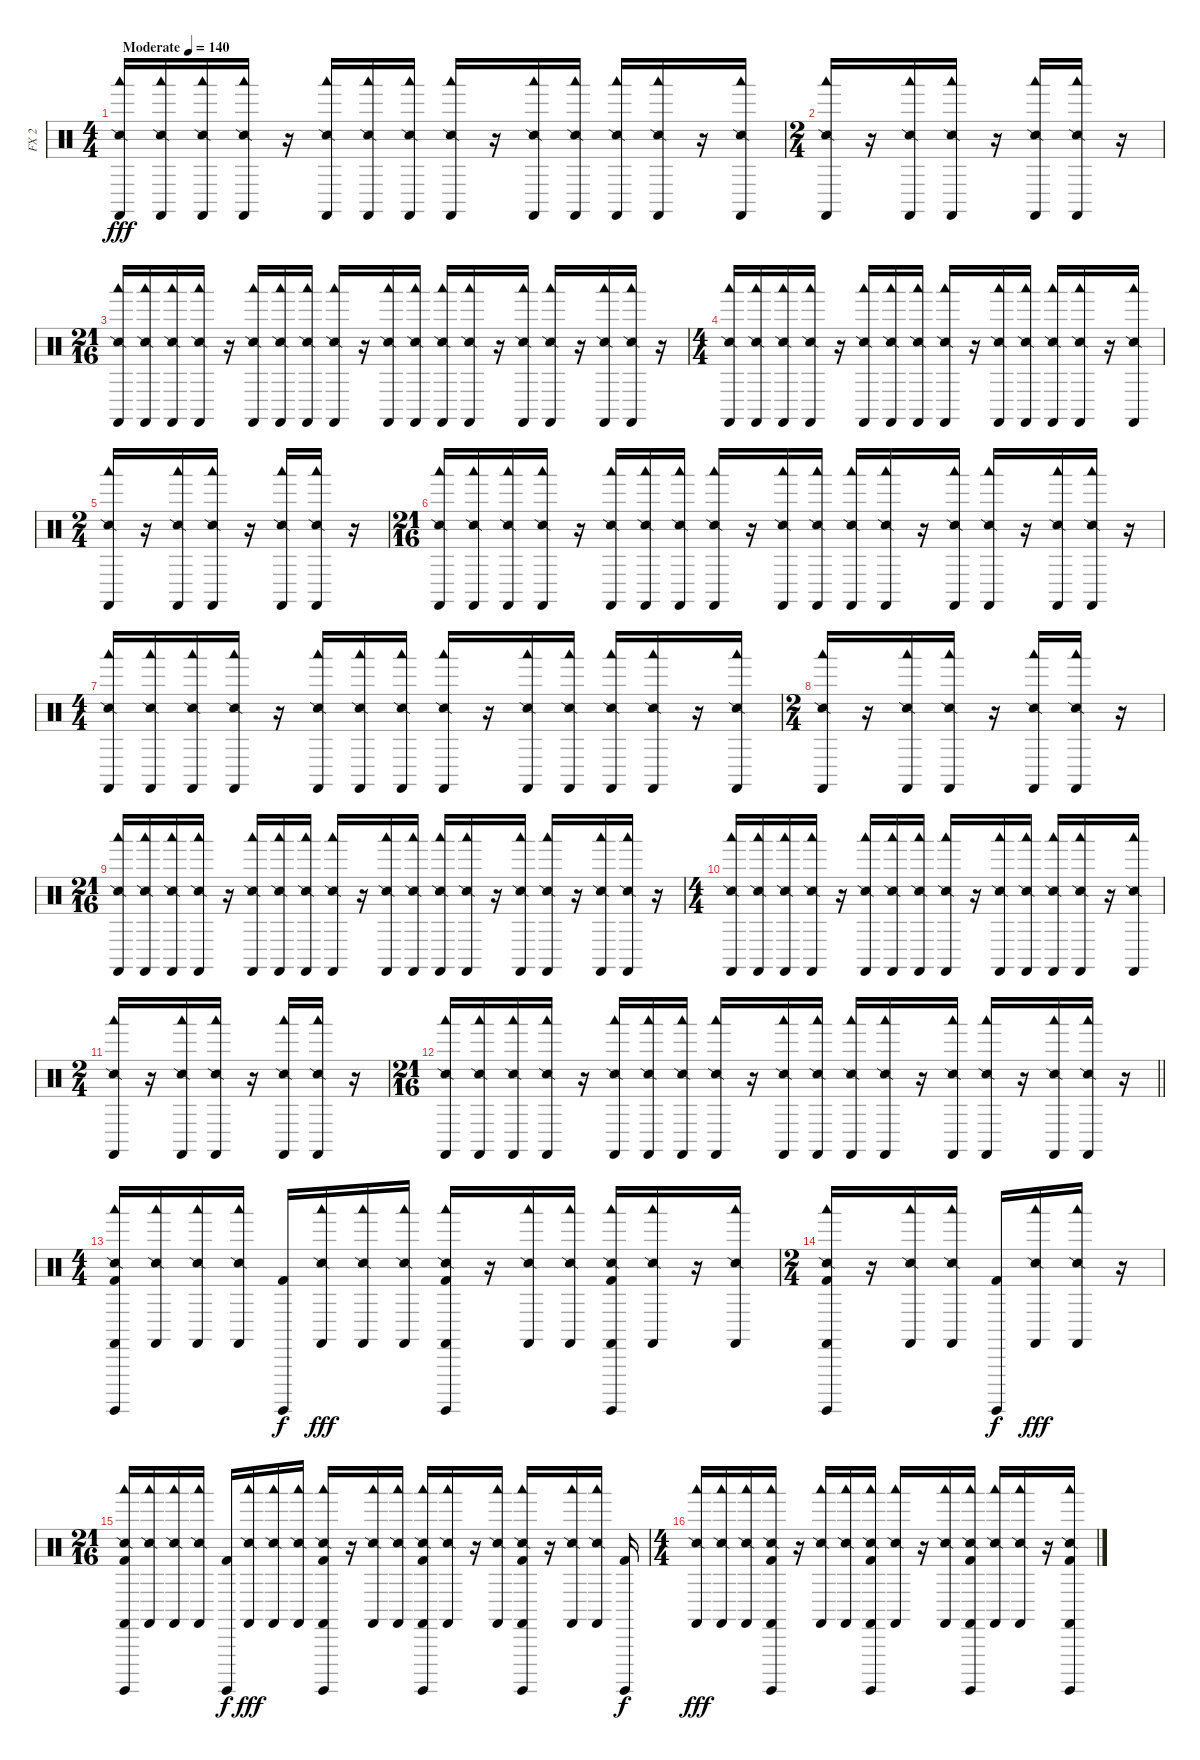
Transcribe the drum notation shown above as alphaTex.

\track ("FX 2" "FX 2") {instrument percussion}
\staff {score}
\articulation defaults
\ts (4 4)
\tempo (140 "Moderate")
\clef neutral
\ks c
("Snare (side stick) 2" "Woodblock low (hit)" "Castanets (hit)").16{dy fff} ("Snare (side stick) 2" "Woodblock low (hit)" "Castanets (hit)").16 ("Snare (side stick) 2" "Woodblock low (hit)" "Castanets (hit)").16 ("Snare (side stick) 2" "Woodblock low (hit)" "Castanets (hit)").16 r.16 ("Snare (side stick) 2" "Woodblock low (hit)" "Castanets (hit)").16 ("Snare (side stick) 2" "Woodblock low (hit)" "Castanets (hit)").16 ("Snare (side stick) 2" "Woodblock low (hit)" "Castanets (hit)").16 ("Snare (side stick) 2" "Woodblock low (hit)" "Castanets (hit)").16 r.16 ("Snare (side stick) 2" "Woodblock low (hit)" "Castanets (hit)").16 ("Snare (side stick) 2" "Woodblock low (hit)" "Castanets (hit)").16 ("Snare (side stick) 2" "Woodblock low (hit)" "Castanets (hit)").16 ("Snare (side stick) 2" "Woodblock low (hit)" "Castanets (hit)").16 r.16 ("Snare (side stick) 2" "Woodblock low (hit)" "Castanets (hit)").16 |
\ts (2 4)
("Snare (side stick) 2" "Woodblock low (hit)" "Castanets (hit)").16 r.16 ("Snare (side stick) 2" "Woodblock low (hit)" "Castanets (hit)").16 ("Snare (side stick) 2" "Woodblock low (hit)" "Castanets (hit)").16 r.16 ("Snare (side stick) 2" "Woodblock low (hit)" "Castanets (hit)").16 ("Snare (side stick) 2" "Woodblock low (hit)" "Castanets (hit)").16 r.16 |
\ts (21 16)
("Snare (side stick) 2" "Woodblock low (hit)" "Castanets (hit)").16 ("Snare (side stick) 2" "Woodblock low (hit)" "Castanets (hit)").16 ("Snare (side stick) 2" "Woodblock low (hit)" "Castanets (hit)").16 ("Snare (side stick) 2" "Woodblock low (hit)" "Castanets (hit)").16 r.16 ("Snare (side stick) 2" "Woodblock low (hit)" "Castanets (hit)").16 ("Snare (side stick) 2" "Woodblock low (hit)" "Castanets (hit)").16 ("Snare (side stick) 2" "Woodblock low (hit)" "Castanets (hit)").16 ("Snare (side stick) 2" "Woodblock low (hit)" "Castanets (hit)").16 r.16 ("Snare (side stick) 2" "Woodblock low (hit)" "Castanets (hit)").16 ("Snare (side stick) 2" "Woodblock low (hit)" "Castanets (hit)").16 ("Snare (side stick) 2" "Woodblock low (hit)" "Castanets (hit)").16 ("Snare (side stick) 2" "Woodblock low (hit)" "Castanets (hit)").16 r.16 ("Snare (side stick) 2" "Woodblock low (hit)" "Castanets (hit)").16 ("Snare (side stick) 2" "Woodblock low (hit)" "Castanets (hit)").16 r.16 ("Snare (side stick) 2" "Woodblock low (hit)" "Castanets (hit)").16 ("Snare (side stick) 2" "Woodblock low (hit)" "Castanets (hit)").16 r.16 |
\ts (4 4)
("Snare (side stick) 2" "Woodblock low (hit)" "Castanets (hit)").16 ("Snare (side stick) 2" "Woodblock low (hit)" "Castanets (hit)").16 ("Snare (side stick) 2" "Woodblock low (hit)" "Castanets (hit)").16 ("Snare (side stick) 2" "Woodblock low (hit)" "Castanets (hit)").16 r.16 ("Snare (side stick) 2" "Woodblock low (hit)" "Castanets (hit)").16 ("Snare (side stick) 2" "Woodblock low (hit)" "Castanets (hit)").16 ("Snare (side stick) 2" "Woodblock low (hit)" "Castanets (hit)").16 ("Snare (side stick) 2" "Woodblock low (hit)" "Castanets (hit)").16 r.16 ("Snare (side stick) 2" "Woodblock low (hit)" "Castanets (hit)").16 ("Snare (side stick) 2" "Woodblock low (hit)" "Castanets (hit)").16 ("Snare (side stick) 2" "Woodblock low (hit)" "Castanets (hit)").16 ("Snare (side stick) 2" "Woodblock low (hit)" "Castanets (hit)").16 r.16 ("Snare (side stick) 2" "Woodblock low (hit)" "Castanets (hit)").16 |
\ts (2 4)
("Snare (side stick) 2" "Woodblock low (hit)" "Castanets (hit)").16 r.16 ("Snare (side stick) 2" "Woodblock low (hit)" "Castanets (hit)").16 ("Snare (side stick) 2" "Woodblock low (hit)" "Castanets (hit)").16 r.16 ("Snare (side stick) 2" "Woodblock low (hit)" "Castanets (hit)").16 ("Snare (side stick) 2" "Woodblock low (hit)" "Castanets (hit)").16 r.16 |
\ts (21 16)
("Snare (side stick) 2" "Woodblock low (hit)" "Castanets (hit)").16 ("Snare (side stick) 2" "Woodblock low (hit)" "Castanets (hit)").16 ("Snare (side stick) 2" "Woodblock low (hit)" "Castanets (hit)").16 ("Snare (side stick) 2" "Woodblock low (hit)" "Castanets (hit)").16 r.16 ("Snare (side stick) 2" "Woodblock low (hit)" "Castanets (hit)").16 ("Snare (side stick) 2" "Woodblock low (hit)" "Castanets (hit)").16 ("Snare (side stick) 2" "Woodblock low (hit)" "Castanets (hit)").16 ("Snare (side stick) 2" "Woodblock low (hit)" "Castanets (hit)").16 r.16 ("Snare (side stick) 2" "Woodblock low (hit)" "Castanets (hit)").16 ("Snare (side stick) 2" "Woodblock low (hit)" "Castanets (hit)").16 ("Snare (side stick) 2" "Woodblock low (hit)" "Castanets (hit)").16 ("Snare (side stick) 2" "Woodblock low (hit)" "Castanets (hit)").16 r.16 ("Snare (side stick) 2" "Woodblock low (hit)" "Castanets (hit)").16 ("Snare (side stick) 2" "Woodblock low (hit)" "Castanets (hit)").16 r.16 ("Snare (side stick) 2" "Woodblock low (hit)" "Castanets (hit)").16 ("Snare (side stick) 2" "Woodblock low (hit)" "Castanets (hit)").16 r.16 |
\ts (4 4)
("Snare (side stick) 2" "Woodblock low (hit)" "Castanets (hit)").16 ("Snare (side stick) 2" "Woodblock low (hit)" "Castanets (hit)").16 ("Snare (side stick) 2" "Woodblock low (hit)" "Castanets (hit)").16 ("Snare (side stick) 2" "Woodblock low (hit)" "Castanets (hit)").16 r.16 ("Snare (side stick) 2" "Woodblock low (hit)" "Castanets (hit)").16 ("Snare (side stick) 2" "Woodblock low (hit)" "Castanets (hit)").16 ("Snare (side stick) 2" "Woodblock low (hit)" "Castanets (hit)").16 ("Snare (side stick) 2" "Woodblock low (hit)" "Castanets (hit)").16 r.16 ("Snare (side stick) 2" "Woodblock low (hit)" "Castanets (hit)").16 ("Snare (side stick) 2" "Woodblock low (hit)" "Castanets (hit)").16 ("Snare (side stick) 2" "Woodblock low (hit)" "Castanets (hit)").16 ("Snare (side stick) 2" "Woodblock low (hit)" "Castanets (hit)").16 r.16 ("Snare (side stick) 2" "Woodblock low (hit)" "Castanets (hit)").16 |
\ts (2 4)
("Snare (side stick) 2" "Woodblock low (hit)" "Castanets (hit)").16 r.16 ("Snare (side stick) 2" "Woodblock low (hit)" "Castanets (hit)").16 ("Snare (side stick) 2" "Woodblock low (hit)" "Castanets (hit)").16 r.16 ("Snare (side stick) 2" "Woodblock low (hit)" "Castanets (hit)").16 ("Snare (side stick) 2" "Woodblock low (hit)" "Castanets (hit)").16 r.16 |
\ts (21 16)
("Snare (side stick) 2" "Woodblock low (hit)" "Castanets (hit)").16 ("Snare (side stick) 2" "Woodblock low (hit)" "Castanets (hit)").16 ("Snare (side stick) 2" "Woodblock low (hit)" "Castanets (hit)").16 ("Snare (side stick) 2" "Woodblock low (hit)" "Castanets (hit)").16 r.16 ("Snare (side stick) 2" "Woodblock low (hit)" "Castanets (hit)").16 ("Snare (side stick) 2" "Woodblock low (hit)" "Castanets (hit)").16 ("Snare (side stick) 2" "Woodblock low (hit)" "Castanets (hit)").16 ("Snare (side stick) 2" "Woodblock low (hit)" "Castanets (hit)").16 r.16 ("Snare (side stick) 2" "Woodblock low (hit)" "Castanets (hit)").16 ("Snare (side stick) 2" "Woodblock low (hit)" "Castanets (hit)").16 ("Snare (side stick) 2" "Woodblock low (hit)" "Castanets (hit)").16 ("Snare (side stick) 2" "Woodblock low (hit)" "Castanets (hit)").16 r.16 ("Snare (side stick) 2" "Woodblock low (hit)" "Castanets (hit)").16 ("Snare (side stick) 2" "Woodblock low (hit)" "Castanets (hit)").16 r.16 ("Snare (side stick) 2" "Woodblock low (hit)" "Castanets (hit)").16 ("Snare (side stick) 2" "Woodblock low (hit)" "Castanets (hit)").16 r.16 |
\ts (4 4)
("Snare (side stick) 2" "Woodblock low (hit)" "Castanets (hit)").16 ("Snare (side stick) 2" "Woodblock low (hit)" "Castanets (hit)").16 ("Snare (side stick) 2" "Woodblock low (hit)" "Castanets (hit)").16 ("Snare (side stick) 2" "Woodblock low (hit)" "Castanets (hit)").16 r.16 ("Snare (side stick) 2" "Woodblock low (hit)" "Castanets (hit)").16 ("Snare (side stick) 2" "Woodblock low (hit)" "Castanets (hit)").16 ("Snare (side stick) 2" "Woodblock low (hit)" "Castanets (hit)").16 ("Snare (side stick) 2" "Woodblock low (hit)" "Castanets (hit)").16 r.16 ("Snare (side stick) 2" "Woodblock low (hit)" "Castanets (hit)").16 ("Snare (side stick) 2" "Woodblock low (hit)" "Castanets (hit)").16 ("Snare (side stick) 2" "Woodblock low (hit)" "Castanets (hit)").16 ("Snare (side stick) 2" "Woodblock low (hit)" "Castanets (hit)").16 r.16 ("Snare (side stick) 2" "Woodblock low (hit)" "Castanets (hit)").16 |
\ts (2 4)
("Snare (side stick) 2" "Woodblock low (hit)" "Castanets (hit)").16 r.16 ("Snare (side stick) 2" "Woodblock low (hit)" "Castanets (hit)").16 ("Snare (side stick) 2" "Woodblock low (hit)" "Castanets (hit)").16 r.16 ("Snare (side stick) 2" "Woodblock low (hit)" "Castanets (hit)").16 ("Snare (side stick) 2" "Woodblock low (hit)" "Castanets (hit)").16 r.16 |
\ts (21 16)
\barLineRight lightlight
("Snare (side stick) 2" "Woodblock low (hit)" "Castanets (hit)").16 ("Snare (side stick) 2" "Woodblock low (hit)" "Castanets (hit)").16 ("Snare (side stick) 2" "Woodblock low (hit)" "Castanets (hit)").16 ("Snare (side stick) 2" "Woodblock low (hit)" "Castanets (hit)").16 r.16 ("Snare (side stick) 2" "Woodblock low (hit)" "Castanets (hit)").16 ("Snare (side stick) 2" "Woodblock low (hit)" "Castanets (hit)").16 ("Snare (side stick) 2" "Woodblock low (hit)" "Castanets (hit)").16 ("Snare (side stick) 2" "Woodblock low (hit)" "Castanets (hit)").16 r.16 ("Snare (side stick) 2" "Woodblock low (hit)" "Castanets (hit)").16 ("Snare (side stick) 2" "Woodblock low (hit)" "Castanets (hit)").16 ("Snare (side stick) 2" "Woodblock low (hit)" "Castanets (hit)").16 ("Snare (side stick) 2" "Woodblock low (hit)" "Castanets (hit)").16 r.16 ("Snare (side stick) 2" "Woodblock low (hit)" "Castanets (hit)").16 ("Snare (side stick) 2" "Woodblock low (hit)" "Castanets (hit)").16 r.16 ("Snare (side stick) 2" "Woodblock low (hit)" "Castanets (hit)").16 ("Snare (side stick) 2" "Woodblock low (hit)" "Castanets (hit)").16 r.16 |
\ts (4 4)
("Snare (side stick) 2" "Woodblock low (hit)" "Castanets (hit)" "Surdo (hit)" "Kick (hit) 2").16 ("Snare (side stick) 2" "Woodblock low (hit)" "Castanets (hit)").16 ("Snare (side stick) 2" "Woodblock low (hit)" "Castanets (hit)").16 ("Snare (side stick) 2" "Woodblock low (hit)" "Castanets (hit)").16 ("Surdo (hit)" "Kick (hit) 2").16{dy f} ("Snare (side stick) 2" "Woodblock low (hit)" "Castanets (hit)").16{dy fff} ("Snare (side stick) 2" "Woodblock low (hit)" "Castanets (hit)").16 ("Snare (side stick) 2" "Woodblock low (hit)" "Castanets (hit)").16 ("Snare (side stick) 2" "Woodblock low (hit)" "Castanets (hit)" "Surdo (hit)" "Kick (hit) 2").16 r.16 ("Snare (side stick) 2" "Woodblock low (hit)" "Castanets (hit)").16 ("Snare (side stick) 2" "Woodblock low (hit)" "Castanets (hit)").16 ("Snare (side stick) 2" "Woodblock low (hit)" "Castanets (hit)" "Surdo (hit)" "Kick (hit) 2").16 ("Snare (side stick) 2" "Woodblock low (hit)" "Castanets (hit)").16 r.16 ("Snare (side stick) 2" "Woodblock low (hit)" "Castanets (hit)").16 |
\ts (2 4)
("Snare (side stick) 2" "Woodblock low (hit)" "Castanets (hit)" "Surdo (hit)" "Kick (hit) 2").16 r.16 ("Snare (side stick) 2" "Woodblock low (hit)" "Castanets (hit)").16 ("Snare (side stick) 2" "Woodblock low (hit)" "Castanets (hit)").16 ("Surdo (hit)" "Kick (hit) 2").16{dy f} ("Snare (side stick) 2" "Woodblock low (hit)" "Castanets (hit)").16{dy fff} ("Snare (side stick) 2" "Woodblock low (hit)" "Castanets (hit)").16 r.16 |
\ts (21 16)
("Snare (side stick) 2" "Woodblock low (hit)" "Castanets (hit)" "Surdo (hit)" "Kick (hit) 2").16 ("Snare (side stick) 2" "Woodblock low (hit)" "Castanets (hit)").16 ("Snare (side stick) 2" "Woodblock low (hit)" "Castanets (hit)").16 ("Snare (side stick) 2" "Woodblock low (hit)" "Castanets (hit)").16 ("Surdo (hit)" "Kick (hit) 2").16{dy f} ("Snare (side stick) 2" "Woodblock low (hit)" "Castanets (hit)").16{dy fff} ("Snare (side stick) 2" "Woodblock low (hit)" "Castanets (hit)").16 ("Snare (side stick) 2" "Woodblock low (hit)" "Castanets (hit)").16 ("Snare (side stick) 2" "Woodblock low (hit)" "Castanets (hit)" "Surdo (hit)" "Kick (hit) 2").16 r.16 ("Snare (side stick) 2" "Woodblock low (hit)" "Castanets (hit)").16 ("Snare (side stick) 2" "Woodblock low (hit)" "Castanets (hit)").16 ("Snare (side stick) 2" "Woodblock low (hit)" "Castanets (hit)" "Surdo (hit)" "Kick (hit) 2").16 ("Snare (side stick) 2" "Woodblock low (hit)" "Castanets (hit)").16 r.16 ("Snare (side stick) 2" "Woodblock low (hit)" "Castanets (hit)").16 ("Snare (side stick) 2" "Woodblock low (hit)" "Castanets (hit)" "Surdo (hit)" "Kick (hit) 2").16 r.16 ("Snare (side stick) 2" "Woodblock low (hit)" "Castanets (hit)").16 ("Snare (side stick) 2" "Woodblock low (hit)" "Castanets (hit)").16 ("Surdo (hit)" "Kick (hit) 2").16{dy f} |
\ts (4 4)
("Snare (side stick) 2" "Woodblock low (hit)" "Castanets (hit)").16{dy fff} ("Snare (side stick) 2" "Woodblock low (hit)" "Castanets (hit)").16 ("Snare (side stick) 2" "Woodblock low (hit)" "Castanets (hit)").16 ("Snare (side stick) 2" "Woodblock low (hit)" "Castanets (hit)" "Surdo (hit)" "Kick (hit) 2").16 r.16 ("Snare (side stick) 2" "Woodblock low (hit)" "Castanets (hit)").16 ("Snare (side stick) 2" "Woodblock low (hit)" "Castanets (hit)").16 ("Snare (side stick) 2" "Woodblock low (hit)" "Castanets (hit)" "Surdo (hit)" "Kick (hit) 2").16 ("Snare (side stick) 2" "Woodblock low (hit)" "Castanets (hit)").16 r.16 ("Snare (side stick) 2" "Woodblock low (hit)" "Castanets (hit)").16 ("Snare (side stick) 2" "Woodblock low (hit)" "Castanets (hit)" "Surdo (hit)" "Kick (hit) 2").16 ("Snare (side stick) 2" "Woodblock low (hit)" "Castanets (hit)").16 ("Snare (side stick) 2" "Woodblock low (hit)" "Castanets (hit)").16 r.16 ("Snare (side stick) 2" "Woodblock low (hit)" "Castanets (hit)" "Surdo (hit)" "Kick (hit) 2").16
